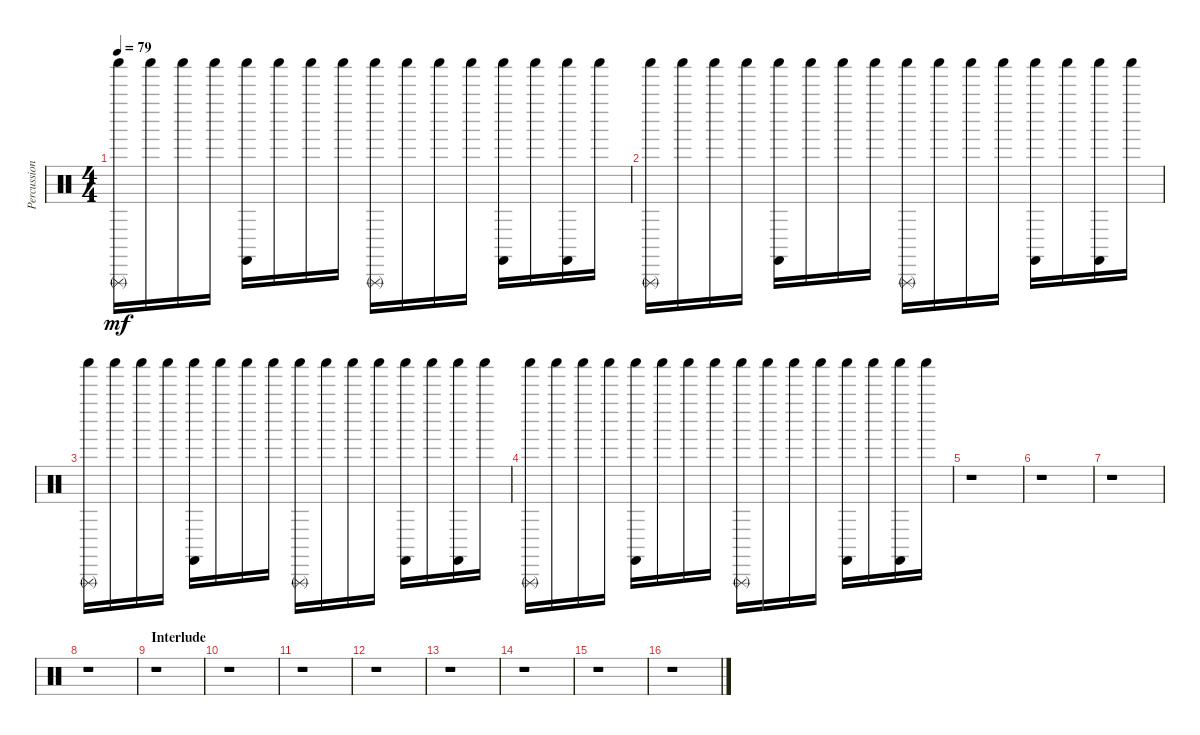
\track ("Percussion" "Percussion") {instrument percussion}
\staff {score}
\articulation defaults
\ts (4 4)
\tempo 79
\clef neutral
\ks c
("Shaker (hit)" "Triangle (rnute)").16{dy mf} "Shaker (hit)".16 "Shaker (hit)".16 "Shaker (hit)".16 ("Shaker (hit)" "Castanets (hit)").16 "Shaker (hit)".16 "Shaker (hit)".16 "Shaker (hit)".16 ("Shaker (hit)" "Triangle (rnute)").16 "Shaker (hit)".16 "Shaker (hit)".16 "Shaker (hit)".16 ("Shaker (hit)" "Castanets (hit)").16 "Shaker (hit)".16 ("Shaker (hit)" "Castanets (hit)").16 "Shaker (hit)".16 |
("Shaker (hit)" "Triangle (rnute)").16 "Shaker (hit)".16 "Shaker (hit)".16 "Shaker (hit)".16 ("Shaker (hit)" "Castanets (hit)").16 "Shaker (hit)".16 "Shaker (hit)".16 "Shaker (hit)".16 ("Shaker (hit)" "Triangle (rnute)").16 "Shaker (hit)".16 "Shaker (hit)".16 "Shaker (hit)".16 ("Shaker (hit)" "Castanets (hit)").16 "Shaker (hit)".16 ("Shaker (hit)" "Castanets (hit)").16 "Shaker (hit)".16 |
("Shaker (hit)" "Triangle (rnute)").16 "Shaker (hit)".16 "Shaker (hit)".16 "Shaker (hit)".16 ("Shaker (hit)" "Castanets (hit)").16 "Shaker (hit)".16 "Shaker (hit)".16 "Shaker (hit)".16 ("Shaker (hit)" "Triangle (rnute)").16 "Shaker (hit)".16 "Shaker (hit)".16 "Shaker (hit)".16 ("Shaker (hit)" "Castanets (hit)").16 "Shaker (hit)".16 ("Shaker (hit)" "Castanets (hit)").16 "Shaker (hit)".16 |
("Shaker (hit)" "Triangle (rnute)").16 "Shaker (hit)".16 "Shaker (hit)".16 "Shaker (hit)".16 ("Shaker (hit)" "Castanets (hit)").16 "Shaker (hit)".16 "Shaker (hit)".16 "Shaker (hit)".16 ("Shaker (hit)" "Triangle (rnute)").16 "Shaker (hit)".16 "Shaker (hit)".16 "Shaker (hit)".16 ("Shaker (hit)" "Castanets (hit)").16 "Shaker (hit)".16 ("Shaker (hit)" "Castanets (hit)").16 "Shaker (hit)".16 |
r.1 |
r.1 |
r.1 |
r.1 |
\section ("" "Interlude")
r.1 |
r.1 |
r.1 |
r.1 |
r.1 |
r.1 |
r.1 |
r.1
